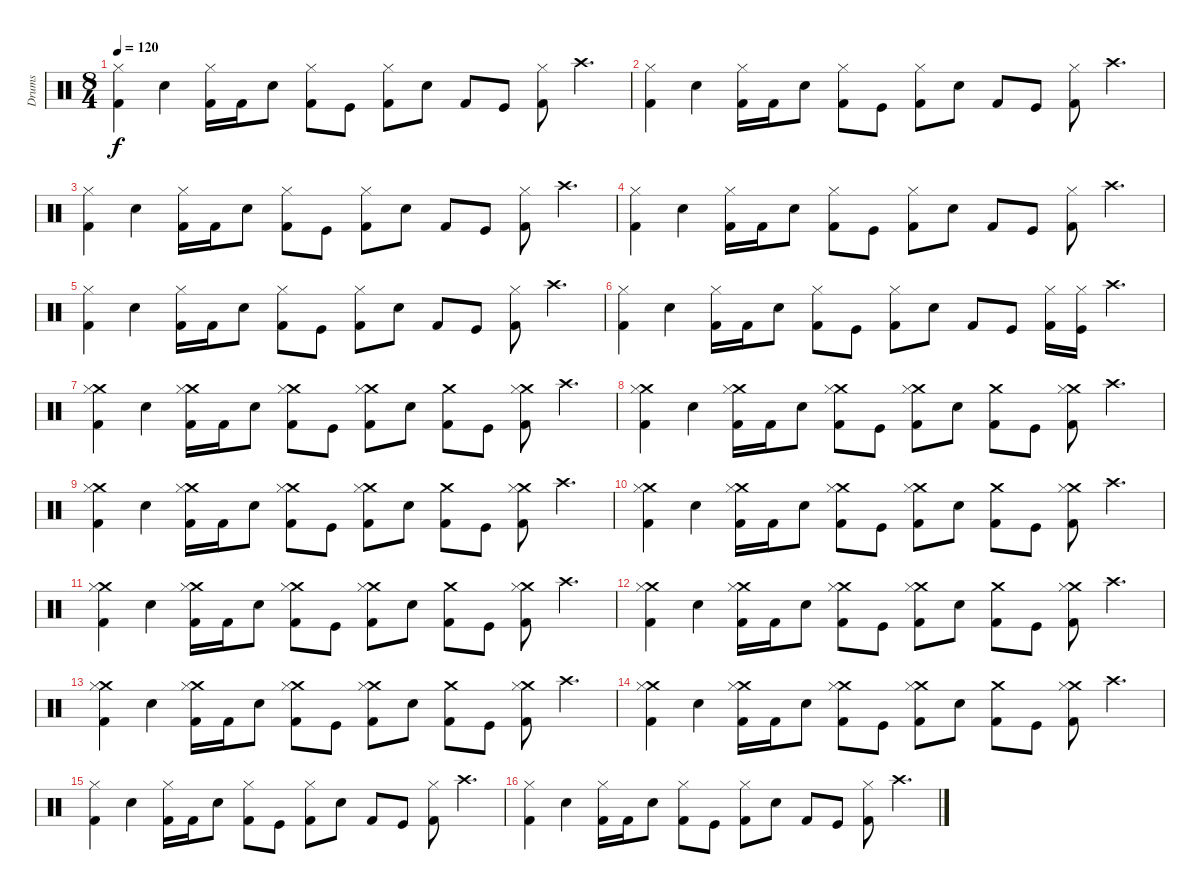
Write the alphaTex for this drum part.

\track ("Drums" "Drums") {instrument percussion}
\staff {score}
\articulation defaults
\ts (8 4)
\tempo 120
\clef neutral
\ks c
("Hi-Hat (closed)" "Kick (hit) 2").4{dy f} "Snare (hit) 2".4 ("Hi-Hat (closed)" "Kick (hit) 2").16 "Kick (hit) 2".16 "Snare (hit) 2".8 ("Hi-Hat (closed)" "Kick (hit) 2").8 "Kick (hit)".8 ("Hi-Hat (closed)" "Kick (hit) 2").8 "Snare (hit) 2".8 "Kick (hit) 2".8 "Kick (hit)".8 ("Hi-Hat (closed)" "Kick (hit) 2").8 "Crash high (hit)".4{d} |
("Hi-Hat (closed)" "Kick (hit) 2").4 "Snare (hit) 2".4 ("Hi-Hat (closed)" "Kick (hit) 2").16 "Kick (hit) 2".16 "Snare (hit) 2".8 ("Hi-Hat (closed)" "Kick (hit) 2").8 "Kick (hit)".8 ("Hi-Hat (closed)" "Kick (hit) 2").8 "Snare (hit) 2".8 "Kick (hit) 2".8 "Kick (hit)".8 ("Hi-Hat (closed)" "Kick (hit) 2").8 "Crash high (hit)".4{d} |
("Hi-Hat (closed)" "Kick (hit) 2").4 "Snare (hit) 2".4 ("Hi-Hat (closed)" "Kick (hit) 2").16 "Kick (hit) 2".16 "Snare (hit) 2".8 ("Hi-Hat (closed)" "Kick (hit) 2").8 "Kick (hit)".8 ("Hi-Hat (closed)" "Kick (hit) 2").8 "Snare (hit) 2".8 "Kick (hit) 2".8 "Kick (hit)".8 ("Hi-Hat (closed)" "Kick (hit) 2").8 "Crash high (hit)".4{d} |
("Hi-Hat (closed)" "Kick (hit) 2").4 "Snare (hit) 2".4 ("Hi-Hat (closed)" "Kick (hit) 2").16 "Kick (hit) 2".16 "Snare (hit) 2".8 ("Hi-Hat (closed)" "Kick (hit) 2").8 "Kick (hit)".8 ("Hi-Hat (closed)" "Kick (hit) 2").8 "Snare (hit) 2".8 "Kick (hit) 2".8 "Kick (hit)".8 ("Hi-Hat (closed)" "Kick (hit) 2").8 "Crash high (hit)".4{d} |
("Hi-Hat (closed)" "Kick (hit) 2").4 "Snare (hit) 2".4 ("Hi-Hat (closed)" "Kick (hit) 2").16 "Kick (hit) 2".16 "Snare (hit) 2".8 ("Hi-Hat (closed)" "Kick (hit) 2").8 "Kick (hit)".8 ("Hi-Hat (closed)" "Kick (hit) 2").8 "Snare (hit) 2".8 "Kick (hit) 2".8 "Kick (hit)".8 ("Hi-Hat (closed)" "Kick (hit) 2").8 "Crash high (hit)".4{d} |
("Hi-Hat (closed)" "Kick (hit) 2").4 "Snare (hit) 2".4 ("Hi-Hat (closed)" "Kick (hit) 2").16 "Kick (hit) 2".16 "Snare (hit) 2".8 ("Hi-Hat (closed)" "Kick (hit) 2").8 "Kick (hit)".8 ("Hi-Hat (closed)" "Kick (hit) 2").8 "Snare (hit) 2".8 "Kick (hit) 2".8 "Kick (hit)".8 ("Hi-Hat (closed)" "Kick (hit) 2").16 ("Hi-Hat (closed)" "Kick (hit)").16 "Crash high (hit)".4{d} |
("Crash medium (hit)" "Hi-Hat (closed)" "Kick (hit) 2").4 "Snare (hit) 2".4 ("Crash medium (hit)" "Hi-Hat (closed)" "Kick (hit) 2").16 "Kick (hit) 2".16 "Snare (hit) 2".8 ("Crash medium (hit)" "Hi-Hat (closed)" "Kick (hit) 2").8 "Kick (hit)".8 ("Crash medium (hit)" "Hi-Hat (closed)" "Kick (hit) 2").8 "Snare (hit) 2".8 ("Crash medium (hit)" "Kick (hit) 2").8 "Kick (hit)".8 ("Crash medium (hit)" "Hi-Hat (closed)" "Kick (hit) 2").8 "Crash high (hit)".4{d} |
("Crash medium (hit)" "Hi-Hat (closed)" "Kick (hit) 2").4 "Snare (hit) 2".4 ("Crash medium (hit)" "Hi-Hat (closed)" "Kick (hit) 2").16 "Kick (hit) 2".16 "Snare (hit) 2".8 ("Crash medium (hit)" "Hi-Hat (closed)" "Kick (hit) 2").8 "Kick (hit)".8 ("Crash medium (hit)" "Hi-Hat (closed)" "Kick (hit) 2").8 "Snare (hit) 2".8 ("Crash medium (hit)" "Kick (hit) 2").8 "Kick (hit)".8 ("Crash medium (hit)" "Hi-Hat (closed)" "Kick (hit) 2").8 "Crash high (hit)".4{d} |
("Crash medium (hit)" "Hi-Hat (closed)" "Kick (hit) 2").4 "Snare (hit) 2".4 ("Crash medium (hit)" "Hi-Hat (closed)" "Kick (hit) 2").16 "Kick (hit) 2".16 "Snare (hit) 2".8 ("Crash medium (hit)" "Hi-Hat (closed)" "Kick (hit) 2").8 "Kick (hit)".8 ("Crash medium (hit)" "Hi-Hat (closed)" "Kick (hit) 2").8 "Snare (hit) 2".8 ("Crash medium (hit)" "Kick (hit) 2").8 "Kick (hit)".8 ("Crash medium (hit)" "Hi-Hat (closed)" "Kick (hit) 2").8 "Crash high (hit)".4{d} |
("Crash medium (hit)" "Hi-Hat (closed)" "Kick (hit) 2").4 "Snare (hit) 2".4 ("Crash medium (hit)" "Hi-Hat (closed)" "Kick (hit) 2").16 "Kick (hit) 2".16 "Snare (hit) 2".8 ("Crash medium (hit)" "Hi-Hat (closed)" "Kick (hit) 2").8 "Kick (hit)".8 ("Crash medium (hit)" "Hi-Hat (closed)" "Kick (hit) 2").8 "Snare (hit) 2".8 ("Crash medium (hit)" "Kick (hit) 2").8 "Kick (hit)".8 ("Crash medium (hit)" "Hi-Hat (closed)" "Kick (hit) 2").8 "Crash high (hit)".4{d} |
("Crash medium (hit)" "Hi-Hat (closed)" "Kick (hit) 2").4 "Snare (hit) 2".4 ("Crash medium (hit)" "Hi-Hat (closed)" "Kick (hit) 2").16 "Kick (hit) 2".16 "Snare (hit) 2".8 ("Crash medium (hit)" "Hi-Hat (closed)" "Kick (hit) 2").8 "Kick (hit)".8 ("Crash medium (hit)" "Hi-Hat (closed)" "Kick (hit) 2").8 "Snare (hit) 2".8 ("Crash medium (hit)" "Kick (hit) 2").8 "Kick (hit)".8 ("Crash medium (hit)" "Hi-Hat (closed)" "Kick (hit) 2").8 "Crash high (hit)".4{d} |
("Crash medium (hit)" "Hi-Hat (closed)" "Kick (hit) 2").4 "Snare (hit) 2".4 ("Crash medium (hit)" "Hi-Hat (closed)" "Kick (hit) 2").16 "Kick (hit) 2".16 "Snare (hit) 2".8 ("Crash medium (hit)" "Hi-Hat (closed)" "Kick (hit) 2").8 "Kick (hit)".8 ("Crash medium (hit)" "Hi-Hat (closed)" "Kick (hit) 2").8 "Snare (hit) 2".8 ("Crash medium (hit)" "Kick (hit) 2").8 "Kick (hit)".8 ("Crash medium (hit)" "Hi-Hat (closed)" "Kick (hit) 2").8 "Crash high (hit)".4{d} |
("Crash medium (hit)" "Hi-Hat (closed)" "Kick (hit) 2").4 "Snare (hit) 2".4 ("Crash medium (hit)" "Hi-Hat (closed)" "Kick (hit) 2").16 "Kick (hit) 2".16 "Snare (hit) 2".8 ("Crash medium (hit)" "Hi-Hat (closed)" "Kick (hit) 2").8 "Kick (hit)".8 ("Crash medium (hit)" "Hi-Hat (closed)" "Kick (hit) 2").8 "Snare (hit) 2".8 ("Crash medium (hit)" "Kick (hit) 2").8 "Kick (hit)".8 ("Crash medium (hit)" "Hi-Hat (closed)" "Kick (hit) 2").8 "Crash high (hit)".4{d} |
("Crash medium (hit)" "Hi-Hat (closed)" "Kick (hit) 2").4 "Snare (hit) 2".4 ("Crash medium (hit)" "Hi-Hat (closed)" "Kick (hit) 2").16 "Kick (hit) 2".16 "Snare (hit) 2".8 ("Crash medium (hit)" "Hi-Hat (closed)" "Kick (hit) 2").8 "Kick (hit)".8 ("Crash medium (hit)" "Hi-Hat (closed)" "Kick (hit) 2").8 "Snare (hit) 2".8 ("Crash medium (hit)" "Kick (hit) 2").8 "Kick (hit)".8 ("Crash medium (hit)" "Hi-Hat (closed)" "Kick (hit) 2").8 "Crash high (hit)".4{d} |
("Hi-Hat (closed)" "Kick (hit) 2").4 "Snare (hit) 2".4 ("Hi-Hat (closed)" "Kick (hit) 2").16 "Kick (hit) 2".16 "Snare (hit) 2".8 ("Hi-Hat (closed)" "Kick (hit) 2").8 "Kick (hit)".8 ("Hi-Hat (closed)" "Kick (hit) 2").8 "Snare (hit) 2".8 "Kick (hit) 2".8 "Kick (hit)".8 ("Hi-Hat (closed)" "Kick (hit) 2").8 "Crash high (hit)".4{d} |
("Hi-Hat (closed)" "Kick (hit) 2").4 "Snare (hit) 2".4 ("Hi-Hat (closed)" "Kick (hit) 2").16 "Kick (hit) 2".16 "Snare (hit) 2".8 ("Hi-Hat (closed)" "Kick (hit) 2").8 "Kick (hit)".8 ("Hi-Hat (closed)" "Kick (hit) 2").8 "Snare (hit) 2".8 "Kick (hit) 2".8 "Kick (hit)".8 ("Hi-Hat (closed)" "Kick (hit) 2").8 "Crash high (hit)".4{d}
